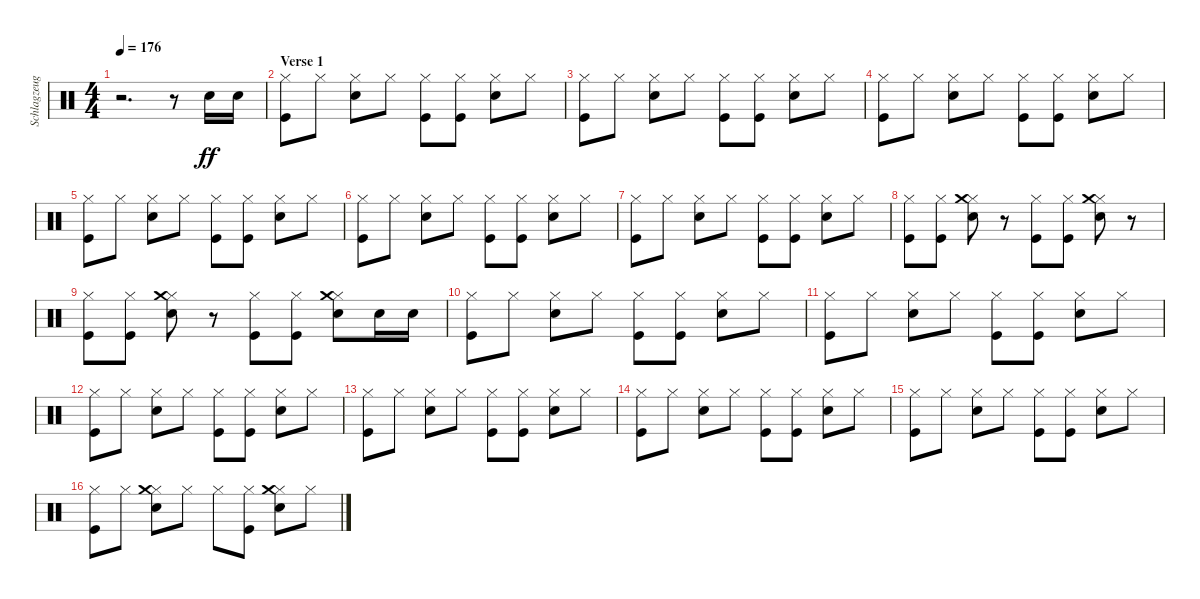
\track ("Schlagzeug - Bela B." "Schlagzeug") {instrument percussion}
\staff {score}
\articulation defaults
\ts (4 4)
\tempo 176
\clef neutral
\ks c
r.2{d dy ff} r.8 "Electric Snare (hit)".16 "Electric Snare (hit)".16 |
\section ("" "Verse 1")
("Kick (hit)" "Hi-Hat (closed)").8 "Hi-Hat (closed)".8 ("Hi-Hat (closed)" "Electric Snare (hit)").8 "Hi-Hat (closed)".8 ("Hi-Hat (closed)" "Kick (hit)").8 ("Hi-Hat (closed)" "Kick (hit)").8 ("Hi-Hat (closed)" "Electric Snare (hit)").8 "Hi-Hat (closed)".8 |
("Kick (hit)" "Hi-Hat (closed)").8 "Hi-Hat (closed)".8 ("Hi-Hat (closed)" "Electric Snare (hit)").8 "Hi-Hat (closed)".8 ("Hi-Hat (closed)" "Kick (hit)").8 ("Hi-Hat (closed)" "Kick (hit)").8 ("Hi-Hat (closed)" "Electric Snare (hit)").8 "Hi-Hat (closed)".8 |
("Kick (hit)" "Hi-Hat (closed)").8 "Hi-Hat (closed)".8 ("Hi-Hat (closed)" "Electric Snare (hit)").8 "Hi-Hat (closed)".8 ("Hi-Hat (closed)" "Kick (hit)").8 ("Hi-Hat (closed)" "Kick (hit)").8 ("Hi-Hat (closed)" "Electric Snare (hit)").8 "Hi-Hat (closed)".8 |
("Kick (hit)" "Hi-Hat (closed)").8 "Hi-Hat (closed)".8 ("Hi-Hat (closed)" "Electric Snare (hit)").8 "Hi-Hat (closed)".8 ("Hi-Hat (closed)" "Kick (hit)").8 ("Hi-Hat (closed)" "Kick (hit)").8 ("Hi-Hat (closed)" "Electric Snare (hit)").8 "Hi-Hat (closed)".8 |
("Kick (hit)" "Hi-Hat (closed)").8 "Hi-Hat (closed)".8 ("Hi-Hat (closed)" "Electric Snare (hit)").8 "Hi-Hat (closed)".8 ("Hi-Hat (closed)" "Kick (hit)").8 ("Hi-Hat (closed)" "Kick (hit)").8 ("Hi-Hat (closed)" "Electric Snare (hit)").8 "Hi-Hat (closed)".8 |
("Kick (hit)" "Hi-Hat (closed)").8 "Hi-Hat (closed)".8 ("Hi-Hat (closed)" "Electric Snare (hit)").8 "Hi-Hat (closed)".8 ("Hi-Hat (closed)" "Kick (hit)").8 ("Hi-Hat (closed)" "Kick (hit)").8 ("Hi-Hat (closed)" "Electric Snare (hit)").8 "Hi-Hat (closed)".8 |
("Kick (hit)" "Hi-Hat (closed)").8 ("Hi-Hat (closed)" "Kick (hit)").8 ("Hi-Hat (closed)" "Electric Snare (hit)" "Crash medium (hit)").8 r.8 ("Hi-Hat (closed)" "Kick (hit)").8 ("Hi-Hat (closed)" "Kick (hit)").8 ("Hi-Hat (closed)" "Electric Snare (hit)" "Crash medium (hit)").8 r.8 |
("Kick (hit)" "Hi-Hat (closed)").8 ("Hi-Hat (closed)" "Kick (hit)").8 ("Hi-Hat (closed)" "Electric Snare (hit)" "Crash medium (hit)").8 r.8 ("Hi-Hat (closed)" "Kick (hit)").8 ("Hi-Hat (closed)" "Kick (hit)").8 ("Hi-Hat (closed)" "Electric Snare (hit)" "Crash medium (hit)").8 "Electric Snare (hit)".16 "Electric Snare (hit)".16 |
("Kick (hit)" "Hi-Hat (closed)").8 "Hi-Hat (closed)".8 ("Hi-Hat (closed)" "Electric Snare (hit)").8 "Hi-Hat (closed)".8 ("Hi-Hat (closed)" "Kick (hit)").8 ("Hi-Hat (closed)" "Kick (hit)").8 ("Hi-Hat (closed)" "Electric Snare (hit)").8 "Hi-Hat (closed)".8 |
("Kick (hit)" "Hi-Hat (closed)").8 "Hi-Hat (closed)".8 ("Hi-Hat (closed)" "Electric Snare (hit)").8 "Hi-Hat (closed)".8 ("Hi-Hat (closed)" "Kick (hit)").8 ("Hi-Hat (closed)" "Kick (hit)").8 ("Hi-Hat (closed)" "Electric Snare (hit)").8 "Hi-Hat (closed)".8 |
("Kick (hit)" "Hi-Hat (closed)").8 "Hi-Hat (closed)".8 ("Hi-Hat (closed)" "Electric Snare (hit)").8 "Hi-Hat (closed)".8 ("Hi-Hat (closed)" "Kick (hit)").8 ("Hi-Hat (closed)" "Kick (hit)").8 ("Hi-Hat (closed)" "Electric Snare (hit)").8 "Hi-Hat (closed)".8 |
("Kick (hit)" "Hi-Hat (closed)").8 "Hi-Hat (closed)".8 ("Hi-Hat (closed)" "Electric Snare (hit)").8 "Hi-Hat (closed)".8 ("Hi-Hat (closed)" "Kick (hit)").8 ("Hi-Hat (closed)" "Kick (hit)").8 ("Hi-Hat (closed)" "Electric Snare (hit)").8 "Hi-Hat (closed)".8 |
("Kick (hit)" "Hi-Hat (closed)").8 "Hi-Hat (closed)".8 ("Hi-Hat (closed)" "Electric Snare (hit)").8 "Hi-Hat (closed)".8 ("Hi-Hat (closed)" "Kick (hit)").8 ("Hi-Hat (closed)" "Kick (hit)").8 ("Hi-Hat (closed)" "Electric Snare (hit)").8 "Hi-Hat (closed)".8 |
("Kick (hit)" "Hi-Hat (closed)").8 "Hi-Hat (closed)".8 ("Hi-Hat (closed)" "Electric Snare (hit)").8 "Hi-Hat (closed)".8 ("Hi-Hat (closed)" "Kick (hit)").8 ("Hi-Hat (closed)" "Kick (hit)").8 ("Hi-Hat (closed)" "Electric Snare (hit)").8 "Hi-Hat (closed)".8 |
("Kick (hit)" "Hi-Hat (closed)").8 "Hi-Hat (closed)".8 ("Hi-Hat (closed)" "Electric Snare (hit)" "Crash medium (hit)").8 "Hi-Hat (closed)".8 "Hi-Hat (closed)".8 ("Hi-Hat (closed)" "Kick (hit)").8 ("Hi-Hat (closed)" "Electric Snare (hit)" "Crash medium (hit)").8 "Hi-Hat (closed)".8
